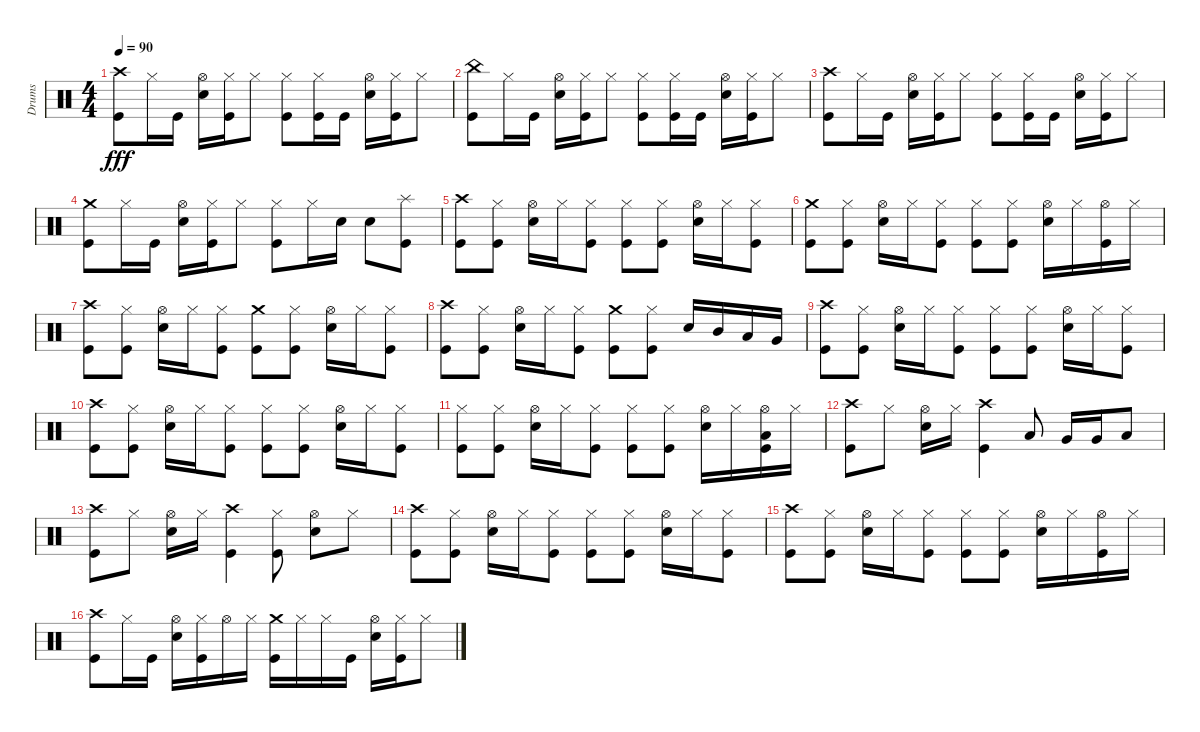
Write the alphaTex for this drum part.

\track ("Drums" "Drums") {instrument percussion}
\staff {score}
\articulation defaults
\ts (4 4)
\tempo 90
\clef neutral
\ks c
("Crash high (hit)" "Kick (hit)").8{dy fff} "Hi-Hat (closed)".16 "Kick (hit)".16 ("Hi-Hat (open)" "Snare (hit) 2").16 ("Hi-Hat (closed)" "Kick (hit)").16 "Hi-Hat (closed)".8 ("Hi-Hat (closed)" "Kick (hit)").8 ("Hi-Hat (closed)" "Kick (hit)").16 "Kick (hit)".16 ("Hi-Hat (open)" "Snare (hit) 2").16 ("Hi-Hat (closed)" "Kick (hit)").16 "Hi-Hat (closed)".8 |
("China (hit)" "Kick (hit)").8 "Hi-Hat (closed)".16 "Kick (hit)".16 ("Hi-Hat (open)" "Snare (hit) 2").16 ("Hi-Hat (closed)" "Kick (hit)").16 "Hi-Hat (closed)".8 ("Hi-Hat (closed)" "Kick (hit)").8 ("Hi-Hat (closed)" "Kick (hit)").16 "Kick (hit)".16 ("Hi-Hat (open)" "Snare (hit) 2").16 ("Hi-Hat (closed)" "Kick (hit)").16 "Hi-Hat (closed)".8 |
("Crash high (hit)" "Kick (hit)").8 "Hi-Hat (closed)".16 "Kick (hit)".16 ("Hi-Hat (open)" "Snare (hit) 2").16 ("Hi-Hat (closed)" "Kick (hit)").16 "Hi-Hat (closed)".8 ("Hi-Hat (closed)" "Kick (hit)").8 ("Hi-Hat (closed)" "Kick (hit)").16 "Kick (hit)".16 ("Hi-Hat (open)" "Snare (hit) 2").16 ("Hi-Hat (closed)" "Kick (hit)").16 "Hi-Hat (closed)".8 |
("Crash medium (hit)" "Kick (hit)").8 "Hi-Hat (closed)".16 "Kick (hit)".16 ("Hi-Hat (open)" "Snare (hit) 2").16 ("Hi-Hat (closed)" "Kick (hit)").16 "Hi-Hat (closed)".8 ("Hi-Hat (closed)" "Kick (hit)").8 "Hi-Hat (closed)".16 "Snare (hit) 2".16 "Snare (hit) 2".8 ("Splash (hit)" "Kick (hit)").8 |
("Crash high (hit)" "Kick (hit)").8 ("Hi-Hat (closed)" "Kick (hit)").8 ("Hi-Hat (open)" "Snare (hit) 2").16 "Hi-Hat (closed)".16 ("Hi-Hat (closed)" "Kick (hit)").8 ("Hi-Hat (closed)" "Kick (hit)").8 ("Hi-Hat (closed)" "Kick (hit)").8 ("Hi-Hat (open)" "Snare (hit) 2").16 "Hi-Hat (closed)".16 ("Hi-Hat (closed)" "Kick (hit)").8 |
("Crash medium (hit)" "Kick (hit)").8 ("Hi-Hat (closed)" "Kick (hit)").8 ("Hi-Hat (open)" "Snare (hit) 2").16 "Hi-Hat (closed)".16 ("Hi-Hat (closed)" "Kick (hit)").8 ("Hi-Hat (closed)" "Kick (hit)").8 ("Hi-Hat (closed)" "Kick (hit)").8 ("Hi-Hat (open)" "Snare (hit) 2").16 "Hi-Hat (closed)".16 ("Hi-Hat (open)" "Kick (hit)").16 "Hi-Hat (closed)".16 |
("Crash high (hit)" "Kick (hit)").8 ("Hi-Hat (closed)" "Kick (hit)").8 ("Hi-Hat (open)" "Snare (hit) 2").16 "Hi-Hat (closed)".16 ("Hi-Hat (closed)" "Kick (hit)").8 ("Crash medium (hit)" "Kick (hit)").8 ("Hi-Hat (closed)" "Kick (hit)").8 ("Hi-Hat (open)" "Snare (hit) 2").16 "Hi-Hat (closed)".16 ("Hi-Hat (closed)" "Kick (hit)").8 |
("Crash high (hit)" "Kick (hit)").8 ("Hi-Hat (closed)" "Kick (hit)").8 ("Hi-Hat (open)" "Snare (hit) 2").16 "Hi-Hat (closed)".16 ("Hi-Hat (closed)" "Kick (hit)").8 ("Crash medium (hit)" "Kick (hit)").8 ("Hi-Hat (closed)" "Kick (hit)").8 "Snare (hit) 2".16 "Mid Tom (hit)".16 "Low Tom (hit)".16 "Very Low Tom (hit)".16 |
("Crash high (hit)" "Kick (hit)").8 ("Hi-Hat (closed)" "Kick (hit)").8 ("Hi-Hat (open)" "Snare (hit) 2").16 "Hi-Hat (closed)".16 ("Hi-Hat (closed)" "Kick (hit)").8 ("Hi-Hat (closed)" "Kick (hit)").8 ("Hi-Hat (closed)" "Kick (hit)").8 ("Hi-Hat (open)" "Snare (hit) 2").16 "Hi-Hat (closed)".16 ("Hi-Hat (closed)" "Kick (hit)").8 |
("Crash high (hit)" "Kick (hit)").8 ("Hi-Hat (closed)" "Kick (hit)").8 ("Hi-Hat (open)" "Snare (hit) 2").16 "Hi-Hat (closed)".16 ("Hi-Hat (closed)" "Kick (hit)").8 ("Hi-Hat (closed)" "Kick (hit)").8 ("Hi-Hat (closed)" "Kick (hit)").8 ("Hi-Hat (open)" "Snare (hit) 2").16 "Hi-Hat (closed)".16 ("Hi-Hat (closed)" "Kick (hit)").8 |
("Hi-Hat (closed)" "Kick (hit)").8 ("Hi-Hat (closed)" "Kick (hit)").8 ("Hi-Hat (open)" "Snare (hit) 2").16 "Hi-Hat (closed)".16 ("Hi-Hat (closed)" "Kick (hit)").8 ("Hi-Hat (closed)" "Kick (hit)").8 ("Hi-Hat (closed)" "Kick (hit)").8 ("Hi-Hat (open)" "Snare (hit) 2").16 "Hi-Hat (closed)".16 ("Hi-Hat (open)" "Low Tom (hit)" "Kick (hit)").16 "Hi-Hat (closed)".16 |
("Crash high (hit)" "Kick (hit)").8 "Hi-Hat (closed)".8 ("Hi-Hat (open)" "Snare (hit) 2").16 "Hi-Hat (closed)".16 ("Crash high (hit)" "Kick (hit)").4 "Low Tom (hit)".8 "Very Low Tom (hit)".16 "Very Low Tom (hit)".16 "Low Floor Tom (hit)".8 |
("Crash high (hit)" "Kick (hit)").8 "Hi-Hat (closed)".8 ("Hi-Hat (open)" "Snare (hit) 2").16 "Hi-Hat (closed)".16 ("Crash high (hit)" "Kick (hit)").4 ("Hi-Hat (closed)" "Kick (hit)").8 ("Hi-Hat (open)" "Snare (hit) 2").8 "Hi-Hat (closed)".8 |
("Crash high (hit)" "Kick (hit)").8 ("Hi-Hat (closed)" "Kick (hit)").8 ("Hi-Hat (open)" "Snare (hit) 2").16 "Hi-Hat (closed)".16 ("Hi-Hat (closed)" "Kick (hit)").8 ("Hi-Hat (closed)" "Kick (hit)").8 ("Hi-Hat (closed)" "Kick (hit)").8 ("Hi-Hat (open)" "Snare (hit) 2").16 "Hi-Hat (closed)".16 ("Hi-Hat (closed)" "Kick (hit)").8 |
("Crash high (hit)" "Kick (hit)").8 ("Hi-Hat (closed)" "Kick (hit)").8 ("Hi-Hat (open)" "Snare (hit) 2").16 "Hi-Hat (closed)".16 ("Hi-Hat (closed)" "Kick (hit)").8 ("Hi-Hat (closed)" "Kick (hit)").8 ("Hi-Hat (closed)" "Kick (hit)").8 ("Hi-Hat (open)" "Snare (hit) 2").16 "Hi-Hat (closed)".16 ("Hi-Hat (open)" "Kick (hit)").16 "Hi-Hat (closed)".16 |
("Crash high (hit)" "Kick (hit)").8 "Hi-Hat (closed)".16 "Kick (hit)".16 ("Hi-Hat (open)" "Snare (hit) 2").16 ("Hi-Hat (closed)" "Kick (hit)").16 "Hi-Hat (open)".16 "Hi-Hat (closed)".16 ("Crash medium (hit)" "Kick (hit)").16 "Hi-Hat (closed)".16 "Hi-Hat (closed)".16 "Kick (hit)".16 ("Hi-Hat (open)" "Snare (hit) 2").16 ("Hi-Hat (closed)" "Kick (hit)").16 "Hi-Hat (closed)".8
